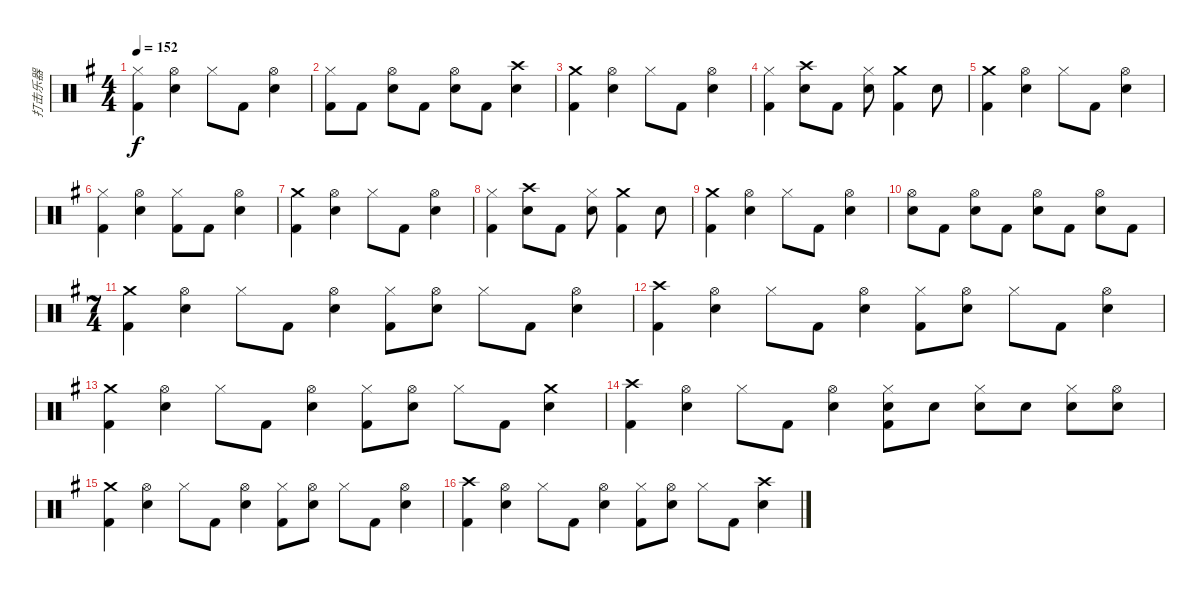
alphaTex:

\track ("打击乐器" "打击乐器") {instrument percussion}
\staff {score}
\articulation defaults
\ts (4 4)
\tempo 152
\clef neutral
\ks g
("Hi-Hat (closed)" "Kick (hit) 2").4{dy f} ("Hi-Hat (open)" "Metronome (bell)").4 "Hi-Hat (closed)".8 "Kick (hit) 2".8 ("Hi-Hat (open)" "Metronome (bell)").4 |
("Hi-Hat (closed)" "Kick (hit) 2").8 "Kick (hit) 2".8 ("Hi-Hat (open)" "Metronome (bell)").8 "Kick (hit) 2".8 ("Hi-Hat (open)" "Metronome (bell)").8 "Kick (hit) 2".8 ("Crash high (hit)" "Metronome (bell)").4 |
("Crash medium (hit)" "Kick (hit) 2").4 ("Hi-Hat (open)" "Metronome (bell)").4 "Hi-Hat (closed)".8 "Kick (hit) 2".8 ("Hi-Hat (open)" "Metronome (bell)").4 |
("Hi-Hat (closed)" "Kick (hit) 2").4 ("Crash high (hit)" "Metronome (bell)").8 "Kick (hit) 2".8 ("Hi-Hat (closed)" "Metronome (bell)").8 ("Crash medium (hit)" "Kick (hit) 2").4 "Metronome (bell)".8 |
("Crash medium (hit)" "Kick (hit) 2").4 ("Hi-Hat (open)" "Metronome (bell)").4 "Hi-Hat (closed)".8 "Kick (hit) 2".8 ("Hi-Hat (open)" "Metronome (bell)").4 |
("Hi-Hat (closed)" "Kick (hit) 2").4 ("Hi-Hat (open)" "Metronome (bell)").4 ("Hi-Hat (closed)" "Kick (hit) 2").8 "Kick (hit) 2".8 ("Hi-Hat (open)" "Metronome (bell)").4 |
("Crash medium (hit)" "Kick (hit) 2").4 ("Hi-Hat (open)" "Metronome (bell)").4 "Hi-Hat (closed)".8 "Kick (hit) 2".8 ("Hi-Hat (open)" "Metronome (bell)").4 |
("Hi-Hat (closed)" "Kick (hit) 2").4 ("Crash high (hit)" "Metronome (bell)").8 "Kick (hit) 2".8 ("Hi-Hat (closed)" "Metronome (bell)").8 ("Crash medium (hit)" "Kick (hit) 2").4 "Metronome (bell)".8 |
("Crash medium (hit)" "Kick (hit) 2").4 ("Hi-Hat (open)" "Metronome (bell)").4 "Hi-Hat (closed)".8 "Kick (hit) 2".8 ("Hi-Hat (open)" "Metronome (bell)").4 |
("Hi-Hat (open)" "Metronome (bell)").8 "Kick (hit) 2".8 ("Hi-Hat (open)" "Metronome (bell)").8 "Kick (hit) 2".8 ("Hi-Hat (open)" "Metronome (bell)").8 "Kick (hit) 2".8 ("Hi-Hat (open)" "Metronome (bell)").8 "Kick (hit) 2".8 |
\ts (7 4)
("Crash medium (hit)" "Kick (hit) 2").4 ("Hi-Hat (open)" "Metronome (bell)").4 "Hi-Hat (closed)".8 "Kick (hit) 2".8 ("Hi-Hat (open)" "Metronome (bell)").4 ("Hi-Hat (closed)" "Kick (hit) 2").8 ("Hi-Hat (open)" "Metronome (bell)").8 "Hi-Hat (closed)".8 "Kick (hit) 2".8 ("Hi-Hat (open)" "Metronome (bell)").4 |
("Crash high (hit)" "Kick (hit) 2").4 ("Hi-Hat (open)" "Metronome (bell)").4 "Hi-Hat (closed)".8 "Kick (hit) 2".8 ("Hi-Hat (open)" "Metronome (bell)").4 ("Hi-Hat (closed)" "Kick (hit) 2").8 ("Hi-Hat (open)" "Metronome (bell)").8 "Hi-Hat (closed)".8 "Kick (hit) 2".8 ("Hi-Hat (open)" "Metronome (bell)").4 |
("Crash medium (hit)" "Kick (hit) 2").4 ("Hi-Hat (open)" "Metronome (bell)").4 "Hi-Hat (closed)".8 "Kick (hit) 2".8 ("Hi-Hat (open)" "Metronome (bell)").4 ("Hi-Hat (closed)" "Kick (hit) 2").8 ("Hi-Hat (open)" "Metronome (bell)").8 "Hi-Hat (closed)".8 "Kick (hit) 2".8 ("Crash medium (hit)" "Metronome (bell)").4 |
("Crash high (hit)" "Kick (hit) 2").4 ("Hi-Hat (open)" "Metronome (bell)").4 "Hi-Hat (closed)".8 "Kick (hit) 2".8 ("Hi-Hat (open)" "Metronome (bell)").4 ("Hi-Hat (closed)" "Metronome (bell)" "Kick (hit) 2").8 "Metronome (bell)".8 ("Hi-Hat (closed)" "Metronome (bell)").8 "Metronome (bell)".8 ("Hi-Hat (closed)" "Metronome (bell)").8 ("Hi-Hat (open)" "Metronome (bell)").8 |
("Crash medium (hit)" "Kick (hit) 2").4 ("Hi-Hat (open)" "Metronome (bell)").4 "Hi-Hat (closed)".8 "Kick (hit) 2".8 ("Hi-Hat (open)" "Metronome (bell)").4 ("Hi-Hat (closed)" "Kick (hit) 2").8 ("Hi-Hat (open)" "Metronome (bell)").8 "Hi-Hat (closed)".8 "Kick (hit) 2".8 ("Hi-Hat (open)" "Metronome (bell)").4 |
("Crash high (hit)" "Kick (hit) 2").4 ("Hi-Hat (open)" "Metronome (bell)").4 "Hi-Hat (closed)".8 "Kick (hit) 2".8 ("Hi-Hat (open)" "Metronome (bell)").4 ("Hi-Hat (closed)" "Kick (hit) 2").8 ("Hi-Hat (open)" "Metronome (bell)").8 "Hi-Hat (closed)".8 "Kick (hit) 2".8 ("Crash high (hit)" "Metronome (bell)").4
